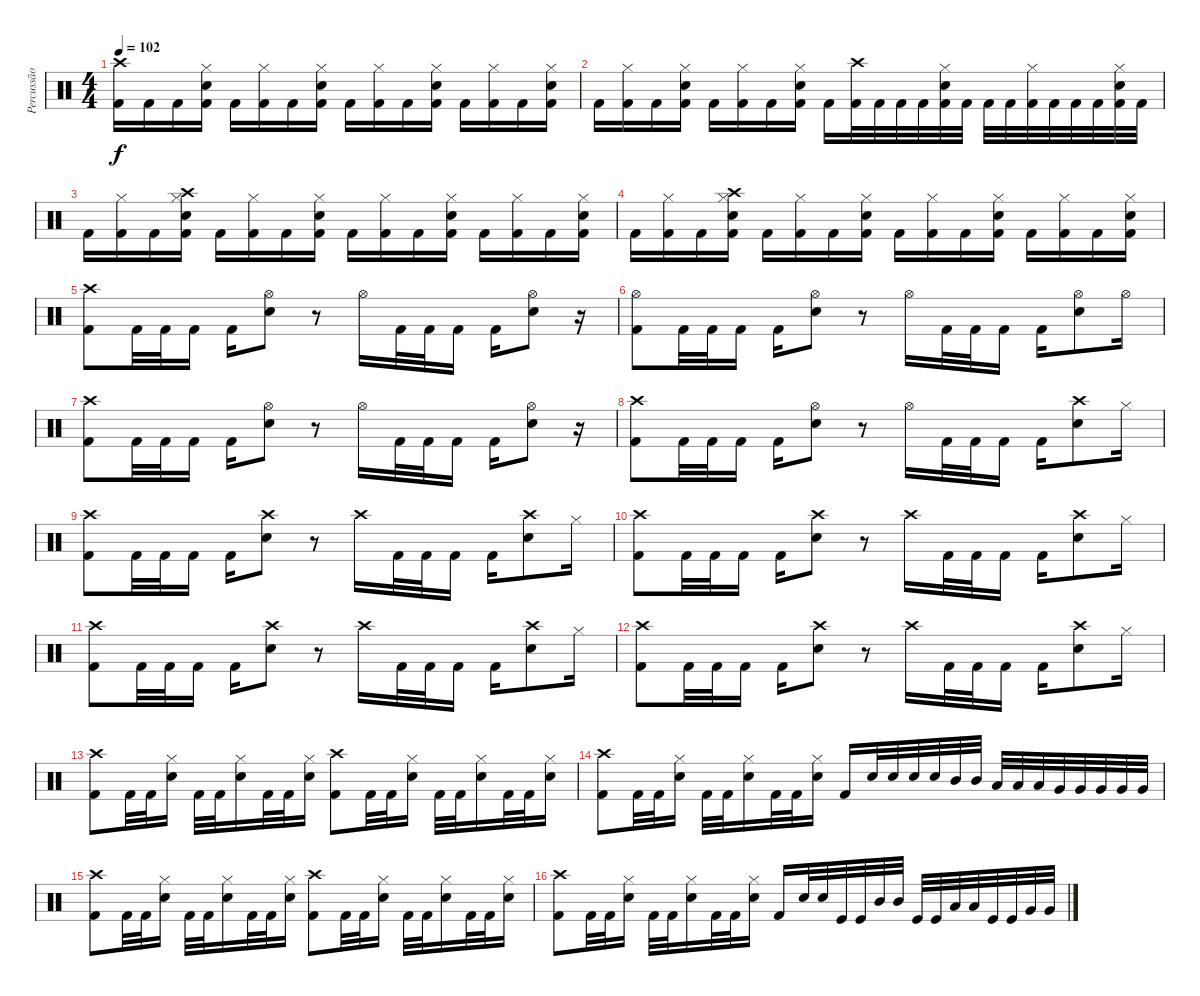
\track ("Percussão" "Percussão") {instrument percussion}
\staff {score}
\articulation defaults
\ts (4 4)
\tempo 102
\clef neutral
\ks c
("Crash high (hit)" "Kick (hit) 2").16{dy f} "Kick (hit) 2".16 "Kick (hit) 2".16 ("Hi-Hat (closed)" "Electric Snare (hit)" "Kick (hit) 2").16 "Kick (hit) 2".16 ("Hi-Hat (closed)" "Kick (hit) 2").16 "Kick (hit) 2".16 ("Hi-Hat (closed)" "Electric Snare (hit)" "Kick (hit) 2").16 "Kick (hit) 2".16 ("Hi-Hat (closed)" "Kick (hit) 2").16 "Kick (hit) 2".16 ("Hi-Hat (closed)" "Electric Snare (hit)" "Kick (hit) 2").16 "Kick (hit) 2".16 ("Hi-Hat (closed)" "Kick (hit) 2").16 "Kick (hit) 2".16 ("Hi-Hat (closed)" "Electric Snare (hit)" "Kick (hit) 2").16 |
"Kick (hit) 2".16 ("Hi-Hat (closed)" "Kick (hit) 2").16 "Kick (hit) 2".16 ("Hi-Hat (closed)" "Electric Snare (hit)" "Kick (hit) 2").16 "Kick (hit) 2".16 ("Hi-Hat (closed)" "Kick (hit) 2").16 "Kick (hit) 2".16 ("Hi-Hat (closed)" "Electric Snare (hit)" "Kick (hit) 2").16 "Kick (hit) 2".16 ("Crash high (hit)" "Kick (hit) 2").32 "Kick (hit) 2".32 "Kick (hit) 2".32 "Kick (hit) 2".32 ("Hi-Hat (closed)" "Electric Snare (hit)" "Kick (hit) 2").32 "Kick (hit) 2".32 "Kick (hit) 2".32 "Kick (hit) 2".32 ("Hi-Hat (closed)" "Kick (hit) 2").32 "Kick (hit) 2".32 "Kick (hit) 2".32 "Kick (hit) 2".32 ("Hi-Hat (closed)" "Electric Snare (hit)" "Kick (hit) 2").32 "Kick (hit) 2".32 |
"Kick (hit) 2".16 ("Hi-Hat (closed)" "Kick (hit) 2").16 "Kick (hit) 2".16 ("Hi-Hat (closed)" "Crash high (hit)" "Electric Snare (hit)" "Kick (hit) 2").16 "Kick (hit) 2".16 ("Hi-Hat (closed)" "Kick (hit) 2").16 "Kick (hit) 2".16 ("Hi-Hat (closed)" "Electric Snare (hit)" "Kick (hit) 2").16 "Kick (hit) 2".16 ("Hi-Hat (closed)" "Kick (hit) 2").16 "Kick (hit) 2".16 ("Hi-Hat (closed)" "Electric Snare (hit)" "Kick (hit) 2").16 "Kick (hit) 2".16 ("Hi-Hat (closed)" "Kick (hit) 2").16 "Kick (hit) 2".16 ("Hi-Hat (closed)" "Electric Snare (hit)" "Kick (hit) 2").16 |
"Kick (hit) 2".16 ("Hi-Hat (closed)" "Kick (hit) 2").16 "Kick (hit) 2".16 ("Hi-Hat (closed)" "Crash high (hit)" "Electric Snare (hit)" "Kick (hit) 2").16 "Kick (hit) 2".16 ("Hi-Hat (closed)" "Kick (hit) 2").16 "Kick (hit) 2".16 ("Hi-Hat (closed)" "Electric Snare (hit)" "Kick (hit) 2").16 "Kick (hit) 2".16 ("Hi-Hat (closed)" "Kick (hit) 2").16 "Kick (hit) 2".16 ("Hi-Hat (closed)" "Electric Snare (hit)" "Kick (hit) 2").16 "Kick (hit) 2".16 ("Hi-Hat (closed)" "Kick (hit) 2").16 "Kick (hit) 2".16 ("Hi-Hat (closed)" "Electric Snare (hit)" "Kick (hit) 2").16 |
\section ("" "")
("Crash high (hit)" "Kick (hit) 2").8 "Kick (hit) 2".32 "Kick (hit) 2".32 "Kick (hit) 2".16 "Kick (hit) 2".16 ("Hi-Hat (open)" "Electric Snare (hit)").8 r.8 "Hi-Hat (open)".16 "Kick (hit) 2".32 "Kick (hit) 2".32 "Kick (hit) 2".16 "Kick (hit) 2".16 ("Hi-Hat (open)" "Electric Snare (hit)").8 r.16 |
("Hi-Hat (open)" "Kick (hit) 2").8 "Kick (hit) 2".32 "Kick (hit) 2".32 "Kick (hit) 2".16 "Kick (hit) 2".16 ("Hi-Hat (open)" "Electric Snare (hit)").8 r.8 "Hi-Hat (open)".16 "Kick (hit) 2".32 "Kick (hit) 2".32 "Kick (hit) 2".16 "Kick (hit) 2".16 ("Hi-Hat (open)" "Electric Snare (hit)").8 "Hi-Hat (open)".16 |
("Crash high (hit)" "Kick (hit) 2").8 "Kick (hit) 2".32 "Kick (hit) 2".32 "Kick (hit) 2".16 "Kick (hit) 2".16 ("Hi-Hat (open)" "Electric Snare (hit)").8 r.8 "Hi-Hat (open)".16 "Kick (hit) 2".32 "Kick (hit) 2".32 "Kick (hit) 2".16 "Kick (hit) 2".16 ("Hi-Hat (open)" "Electric Snare (hit)").8 r.16 |
("Crash high (hit)" "Kick (hit) 2").8 "Kick (hit) 2".32 "Kick (hit) 2".32 "Kick (hit) 2".16 "Kick (hit) 2".16 ("Hi-Hat (open)" "Electric Snare (hit)").8 r.8 "Hi-Hat (open)".16 "Kick (hit) 2".32 "Kick (hit) 2".32 "Kick (hit) 2".16 "Kick (hit) 2".16 ("Crash high (hit)" "Electric Snare (hit)").8 "Hi-Hat (closed)".16 |
\section ("" "")
("Crash high (hit)" "Kick (hit) 2").8 "Kick (hit) 2".32 "Kick (hit) 2".32 "Kick (hit) 2".16 "Kick (hit) 2".16 ("Crash high (hit)" "Electric Snare (hit)").8 r.8 "Crash high (hit)".16 "Kick (hit) 2".32 "Kick (hit) 2".32 "Kick (hit) 2".16 "Kick (hit) 2".16 ("Crash high (hit)" "Electric Snare (hit)").8 "Hi-Hat (closed)".16 |
("Crash high (hit)" "Kick (hit) 2").8 "Kick (hit) 2".32 "Kick (hit) 2".32 "Kick (hit) 2".16 "Kick (hit) 2".16 ("Crash high (hit)" "Electric Snare (hit)").8 r.8 "Crash high (hit)".16 "Kick (hit) 2".32 "Kick (hit) 2".32 "Kick (hit) 2".16 "Kick (hit) 2".16 ("Crash high (hit)" "Electric Snare (hit)").8 "Hi-Hat (closed)".16 |
("Crash high (hit)" "Kick (hit) 2").8 "Kick (hit) 2".32 "Kick (hit) 2".32 "Kick (hit) 2".16 "Kick (hit) 2".16 ("Crash high (hit)" "Electric Snare (hit)").8 r.8 "Crash high (hit)".16 "Kick (hit) 2".32 "Kick (hit) 2".32 "Kick (hit) 2".16 "Kick (hit) 2".16 ("Crash high (hit)" "Electric Snare (hit)").8 "Hi-Hat (closed)".16 |
("Crash high (hit)" "Kick (hit) 2").8 "Kick (hit) 2".32 "Kick (hit) 2".32 "Kick (hit) 2".16 "Kick (hit) 2".16 ("Crash high (hit)" "Electric Snare (hit)").8 r.8 "Crash high (hit)".16 "Kick (hit) 2".32 "Kick (hit) 2".32 "Kick (hit) 2".16 "Kick (hit) 2".16 ("Crash high (hit)" "Electric Snare (hit)").8 "Hi-Hat (closed)".16 |
\section ("" "")
("Crash high (hit)" "Kick (hit) 2").8 "Kick (hit) 2".32 "Kick (hit) 2".32 ("Hi-Hat (closed)" "Electric Snare (hit)").16 "Kick (hit) 2".32 "Kick (hit) 2".32 ("Hi-Hat (closed)" "Electric Snare (hit)").16 "Kick (hit) 2".32 "Kick (hit) 2".32 ("Hi-Hat (closed)" "Electric Snare (hit)").16 ("Crash high (hit)" "Kick (hit) 2").8 "Kick (hit) 2".32 "Kick (hit) 2".32 ("Hi-Hat (closed)" "Electric Snare (hit)").16 "Kick (hit) 2".32 "Kick (hit) 2".32 ("Hi-Hat (closed)" "Electric Snare (hit)").16 "Kick (hit) 2".32 "Kick (hit) 2".32 ("Hi-Hat (closed)" "Electric Snare (hit)").16 |
\section ("" "")
("Crash high (hit)" "Kick (hit) 2").8 "Kick (hit) 2".32 "Kick (hit) 2".32 ("Hi-Hat (closed)" "Electric Snare (hit)").16 "Kick (hit) 2".32 "Kick (hit) 2".32 ("Hi-Hat (closed)" "Electric Snare (hit)").16 "Kick (hit) 2".32 "Kick (hit) 2".32 ("Hi-Hat (closed)" "Electric Snare (hit)").16 "Kick (hit) 2".16 "Electric Snare (hit)".32 "Electric Snare (hit)".32 "Electric Snare (hit)".32 "Electric Snare (hit)".32 "Mid Tom (hit)".32 "Mid Tom (hit)".32 "Low Tom (hit)".32 "Low Tom (hit)".32 "Low Tom (hit)".32 "Very Low Tom (hit)".32 "Very Low Tom (hit)".32 "Very Low Tom (hit)".32 "Very Low Tom (hit)".32 "Very Low Tom (hit)".32 |
("Crash high (hit)" "Kick (hit) 2").8 "Kick (hit) 2".32 "Kick (hit) 2".32 ("Hi-Hat (closed)" "Electric Snare (hit)").16 "Kick (hit) 2".32 "Kick (hit) 2".32 ("Hi-Hat (closed)" "Electric Snare (hit)").16 "Kick (hit) 2".32 "Kick (hit) 2".32 ("Hi-Hat (closed)" "Electric Snare (hit)").16 ("Crash high (hit)" "Kick (hit) 2").8 "Kick (hit) 2".32 "Kick (hit) 2".32 ("Hi-Hat (closed)" "Electric Snare (hit)").16 "Kick (hit) 2".32 "Kick (hit) 2".32 ("Hi-Hat (closed)" "Electric Snare (hit)").16 "Kick (hit) 2".32 "Kick (hit) 2".32 ("Hi-Hat (closed)" "Electric Snare (hit)").16 |
("Crash high (hit)" "Kick (hit) 2").8 "Kick (hit) 2".32 "Kick (hit) 2".32 ("Hi-Hat (closed)" "Electric Snare (hit)").16 "Kick (hit) 2".32 "Kick (hit) 2".32 ("Hi-Hat (closed)" "Electric Snare (hit)").16 "Kick (hit) 2".32 "Kick (hit) 2".32 ("Hi-Hat (closed)" "Electric Snare (hit)").16 "Kick (hit) 2".16 "Electric Snare (hit)".32 "Electric Snare (hit)".32 "Kick (hit)".32 "Kick (hit)".32 "Mid Tom (hit)".32 "Mid Tom (hit)".32 "Kick (hit)".32 "Kick (hit)".32 "Low Tom (hit)".32 "Low Tom (hit)".32 "Kick (hit)".32 "Kick (hit)".32 "Very Low Tom (hit)".32 "Very Low Tom (hit)".32
